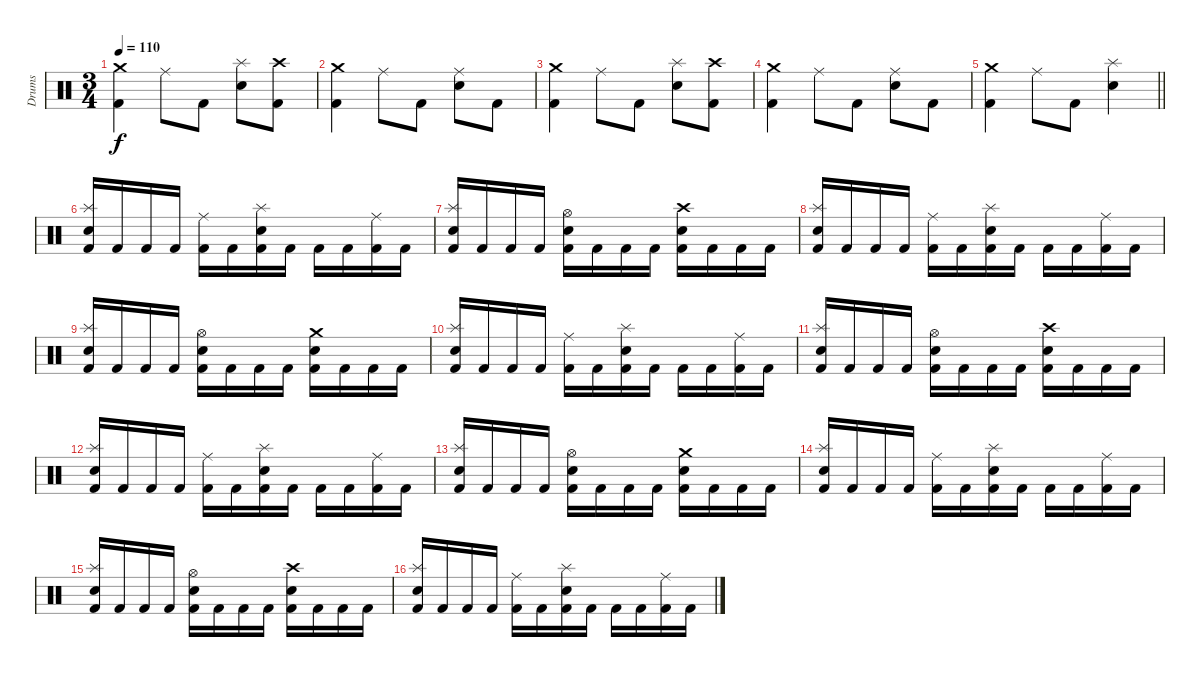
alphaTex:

\track ("Drums" "Drums") {instrument percussion}
\staff {score}
\articulation defaults
\ts (3 4)
\tempo 110
\clef neutral
\ks c
("Crash medium (hit)" "Kick (hit) 2").4{dy f} "Ride (middle)".8 "Kick (hit) 2".8 ("Splash (hit)" "Snare (hit) 2").8 ("Crash high (hit)" "Kick (hit) 2").8 |
("Crash medium (hit)" "Kick (hit) 2").4 "Ride (middle)".8 "Kick (hit) 2".8 ("Ride (middle)" "Snare (hit) 2").8 "Kick (hit) 2".8 |
("Crash medium (hit)" "Kick (hit) 2").4 "Ride (middle)".8 "Kick (hit) 2".8 ("Splash (hit)" "Snare (hit) 2").8 ("Crash high (hit)" "Kick (hit) 2").8 |
("Crash medium (hit)" "Kick (hit) 2").4 "Ride (middle)".8 "Kick (hit) 2".8 ("Ride (middle)" "Snare (hit) 2").8 "Kick (hit) 2".8 |
\barLineRight lightlight
("Crash medium (hit)" "Kick (hit) 2").4 "Ride (middle)".8 "Kick (hit) 2".8 ("Splash (hit)" "Snare (hit) 2").4 |
("Splash (hit)" "Snare (hit) 2" "Kick (hit) 2").16 "Kick (hit) 2".16 "Kick (hit) 2".16 "Kick (hit) 2".16 ("Ride (middle)" "Kick (hit) 2").16 "Kick (hit) 2".16 ("Splash (hit)" "Snare (hit) 2" "Kick (hit) 2").16 "Kick (hit) 2".16 "Kick (hit) 2".16 "Kick (hit) 2".16 ("Ride (middle)" "Kick (hit) 2").16 "Kick (hit) 2".16 |
("Splash (hit)" "Snare (hit) 2" "Kick (hit) 2").16 "Kick (hit) 2".16 "Kick (hit) 2".16 "Kick (hit) 2".16 ("Hi-Hat (open)" "Snare (hit) 2" "Kick (hit) 2").16 "Kick (hit) 2".16 "Kick (hit) 2".16 "Kick (hit) 2".16 ("Crash high (hit)" "Snare (hit) 2" "Kick (hit) 2").16 "Kick (hit) 2".16 "Kick (hit) 2".16 "Kick (hit) 2".16 |
("Splash (hit)" "Snare (hit) 2" "Kick (hit) 2").16 "Kick (hit) 2".16 "Kick (hit) 2".16 "Kick (hit) 2".16 ("Ride (middle)" "Kick (hit) 2").16 "Kick (hit) 2".16 ("Splash (hit)" "Snare (hit) 2" "Kick (hit) 2").16 "Kick (hit) 2".16 "Kick (hit) 2".16 "Kick (hit) 2".16 ("Ride (middle)" "Kick (hit) 2").16 "Kick (hit) 2".16 |
("Splash (hit)" "Snare (hit) 2" "Kick (hit) 2").16 "Kick (hit) 2".16 "Kick (hit) 2".16 "Kick (hit) 2".16 ("Hi-Hat (open)" "Snare (hit) 2" "Kick (hit) 2").16 "Kick (hit) 2".16 "Kick (hit) 2".16 "Kick (hit) 2".16 ("Crash medium (hit)" "Snare (hit) 2" "Kick (hit) 2").16 "Kick (hit) 2".16 "Kick (hit) 2".16 "Kick (hit) 2".16 |
("Splash (hit)" "Snare (hit) 2" "Kick (hit) 2").16 "Kick (hit) 2".16 "Kick (hit) 2".16 "Kick (hit) 2".16 ("Ride (middle)" "Kick (hit) 2").16 "Kick (hit) 2".16 ("Splash (hit)" "Snare (hit) 2" "Kick (hit) 2").16 "Kick (hit) 2".16 "Kick (hit) 2".16 "Kick (hit) 2".16 ("Ride (middle)" "Kick (hit) 2").16 "Kick (hit) 2".16 |
("Splash (hit)" "Snare (hit) 2" "Kick (hit) 2").16 "Kick (hit) 2".16 "Kick (hit) 2".16 "Kick (hit) 2".16 ("Hi-Hat (open)" "Snare (hit) 2" "Kick (hit) 2").16 "Kick (hit) 2".16 "Kick (hit) 2".16 "Kick (hit) 2".16 ("Crash high (hit)" "Snare (hit) 2" "Kick (hit) 2").16 "Kick (hit) 2".16 "Kick (hit) 2".16 "Kick (hit) 2".16 |
("Splash (hit)" "Snare (hit) 2" "Kick (hit) 2").16 "Kick (hit) 2".16 "Kick (hit) 2".16 "Kick (hit) 2".16 ("Ride (middle)" "Kick (hit) 2").16 "Kick (hit) 2".16 ("Splash (hit)" "Snare (hit) 2" "Kick (hit) 2").16 "Kick (hit) 2".16 "Kick (hit) 2".16 "Kick (hit) 2".16 ("Ride (middle)" "Kick (hit) 2").16 "Kick (hit) 2".16 |
("Splash (hit)" "Snare (hit) 2" "Kick (hit) 2").16 "Kick (hit) 2".16 "Kick (hit) 2".16 "Kick (hit) 2".16 ("Hi-Hat (open)" "Snare (hit) 2" "Kick (hit) 2").16 "Kick (hit) 2".16 "Kick (hit) 2".16 "Kick (hit) 2".16 ("Crash medium (hit)" "Snare (hit) 2" "Kick (hit) 2").16 "Kick (hit) 2".16 "Kick (hit) 2".16 "Kick (hit) 2".16 |
("Splash (hit)" "Snare (hit) 2" "Kick (hit) 2").16 "Kick (hit) 2".16 "Kick (hit) 2".16 "Kick (hit) 2".16 ("Ride (middle)" "Kick (hit) 2").16 "Kick (hit) 2".16 ("Splash (hit)" "Snare (hit) 2" "Kick (hit) 2").16 "Kick (hit) 2".16 "Kick (hit) 2".16 "Kick (hit) 2".16 ("Ride (middle)" "Kick (hit) 2").16 "Kick (hit) 2".16 |
("Splash (hit)" "Snare (hit) 2" "Kick (hit) 2").16 "Kick (hit) 2".16 "Kick (hit) 2".16 "Kick (hit) 2".16 ("Hi-Hat (open)" "Snare (hit) 2" "Kick (hit) 2").16 "Kick (hit) 2".16 "Kick (hit) 2".16 "Kick (hit) 2".16 ("Crash high (hit)" "Snare (hit) 2" "Kick (hit) 2").16 "Kick (hit) 2".16 "Kick (hit) 2".16 "Kick (hit) 2".16 |
("Splash (hit)" "Snare (hit) 2" "Kick (hit) 2").16 "Kick (hit) 2".16 "Kick (hit) 2".16 "Kick (hit) 2".16 ("Ride (middle)" "Kick (hit) 2").16 "Kick (hit) 2".16 ("Splash (hit)" "Snare (hit) 2" "Kick (hit) 2").16 "Kick (hit) 2".16 "Kick (hit) 2".16 "Kick (hit) 2".16 ("Ride (middle)" "Kick (hit) 2").16 "Kick (hit) 2".16
